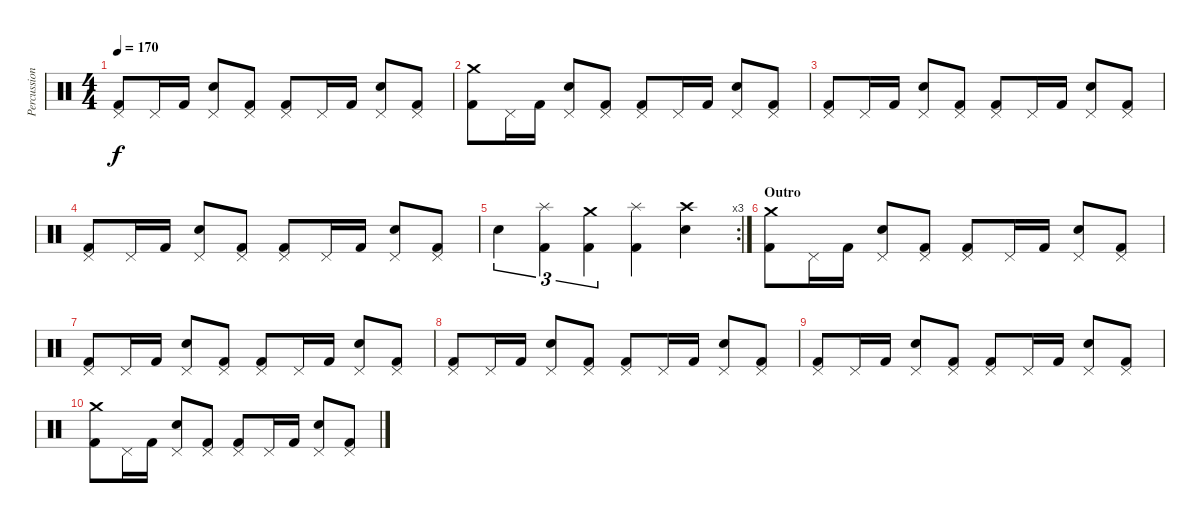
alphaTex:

\track ("Percussions" "Percussion") {instrument percussion}
\staff {score}
\articulation defaults
\ts (4 4)
\tempo 170
\clef neutral
\ks c
("Pedal Hi-Hat (hit)" "Kick (hit) 2").8{dy f} "Pedal Hi-Hat (hit)".16 "Kick (hit) 2".16 ("Pedal Hi-Hat (hit)" "Snare (hit) 2").8 ("Pedal Hi-Hat (hit)" "Kick (hit) 2").8 ("Pedal Hi-Hat (hit)" "Kick (hit) 2").8 "Pedal Hi-Hat (hit)".16 "Kick (hit) 2".16 ("Pedal Hi-Hat (hit)" "Snare (hit) 2").8 ("Pedal Hi-Hat (hit)" "Kick (hit) 2").8 |
("Crash medium (hit)" "Kick (hit) 2").8 "Pedal Hi-Hat (hit)".16 "Kick (hit) 2".16 ("Pedal Hi-Hat (hit)" "Snare (hit) 2").8 ("Pedal Hi-Hat (hit)" "Kick (hit) 2").8 ("Pedal Hi-Hat (hit)" "Kick (hit) 2").8 "Pedal Hi-Hat (hit)".16 "Kick (hit) 2".16 ("Pedal Hi-Hat (hit)" "Snare (hit) 2").8 ("Pedal Hi-Hat (hit)" "Kick (hit) 2").8 |
("Pedal Hi-Hat (hit)" "Kick (hit) 2").8 "Pedal Hi-Hat (hit)".16 "Kick (hit) 2".16 ("Pedal Hi-Hat (hit)" "Snare (hit) 2").8 ("Pedal Hi-Hat (hit)" "Kick (hit) 2").8 ("Pedal Hi-Hat (hit)" "Kick (hit) 2").8 "Pedal Hi-Hat (hit)".16 "Kick (hit) 2".16 ("Pedal Hi-Hat (hit)" "Snare (hit) 2").8 ("Pedal Hi-Hat (hit)" "Kick (hit) 2").8 |
("Pedal Hi-Hat (hit)" "Kick (hit) 2").8 "Pedal Hi-Hat (hit)".16 "Kick (hit) 2".16 ("Pedal Hi-Hat (hit)" "Snare (hit) 2").8 ("Pedal Hi-Hat (hit)" "Kick (hit) 2").8 ("Pedal Hi-Hat (hit)" "Kick (hit) 2").8 "Pedal Hi-Hat (hit)".16 "Kick (hit) 2".16 ("Pedal Hi-Hat (hit)" "Snare (hit) 2").8 ("Pedal Hi-Hat (hit)" "Kick (hit) 2").8 |
\rc 3 "Snare (hit) 2".4{tu (3 2)}
("Splash (hit)" "Kick (hit) 2").4{tu (3 2)} ("Crash medium (hit)" "Kick (hit) 2").4{tu (3 2)} ("Splash (hit)" "Kick (hit) 2").4 ("Crash high (hit)" "Snare (hit) 2").4 |
\section ("" "Outro")
("Crash medium (hit)" "Kick (hit) 2").8{volume 8} "Pedal Hi-Hat (hit)".16 "Kick (hit) 2".16 ("Pedal Hi-Hat (hit)" "Snare (hit) 2").8 ("Pedal Hi-Hat (hit)" "Kick (hit) 2").8 ("Pedal Hi-Hat (hit)" "Kick (hit) 2").8 "Pedal Hi-Hat (hit)".16 "Kick (hit) 2".16 ("Pedal Hi-Hat (hit)" "Snare (hit) 2").8 ("Pedal Hi-Hat (hit)" "Kick (hit) 2").8 |
("Pedal Hi-Hat (hit)" "Kick (hit) 2").8{volume 7} "Pedal Hi-Hat (hit)".16 "Kick (hit) 2".16 ("Pedal Hi-Hat (hit)" "Snare (hit) 2").8 ("Pedal Hi-Hat (hit)" "Kick (hit) 2").8 ("Pedal Hi-Hat (hit)" "Kick (hit) 2").8 "Pedal Hi-Hat (hit)".16 "Kick (hit) 2".16 ("Pedal Hi-Hat (hit)" "Snare (hit) 2").8 ("Pedal Hi-Hat (hit)" "Kick (hit) 2").8 |
("Pedal Hi-Hat (hit)" "Kick (hit) 2").8 "Pedal Hi-Hat (hit)".16 "Kick (hit) 2".16 ("Pedal Hi-Hat (hit)" "Snare (hit) 2").8 ("Pedal Hi-Hat (hit)" "Kick (hit) 2").8 ("Pedal Hi-Hat (hit)" "Kick (hit) 2").8 "Pedal Hi-Hat (hit)".16 "Kick (hit) 2".16 ("Pedal Hi-Hat (hit)" "Snare (hit) 2").8 ("Pedal Hi-Hat (hit)" "Kick (hit) 2").8 |
("Pedal Hi-Hat (hit)" "Kick (hit) 2").8{volume 4} "Pedal Hi-Hat (hit)".16 "Kick (hit) 2".16 ("Pedal Hi-Hat (hit)" "Snare (hit) 2").8 ("Pedal Hi-Hat (hit)" "Kick (hit) 2").8 ("Pedal Hi-Hat (hit)" "Kick (hit) 2").8 "Pedal Hi-Hat (hit)".16 "Kick (hit) 2".16 ("Pedal Hi-Hat (hit)" "Snare (hit) 2").8 ("Pedal Hi-Hat (hit)" "Kick (hit) 2").8 |
("Crash medium (hit)" "Kick (hit) 2").8 "Pedal Hi-Hat (hit)".16 "Kick (hit) 2".16 ("Pedal Hi-Hat (hit)" "Snare (hit) 2").8 ("Pedal Hi-Hat (hit)" "Kick (hit) 2").8 ("Pedal Hi-Hat (hit)" "Kick (hit) 2").8 "Pedal Hi-Hat (hit)".16 "Kick (hit) 2".16 ("Pedal Hi-Hat (hit)" "Snare (hit) 2").8 ("Pedal Hi-Hat (hit)" "Kick (hit) 2").8
